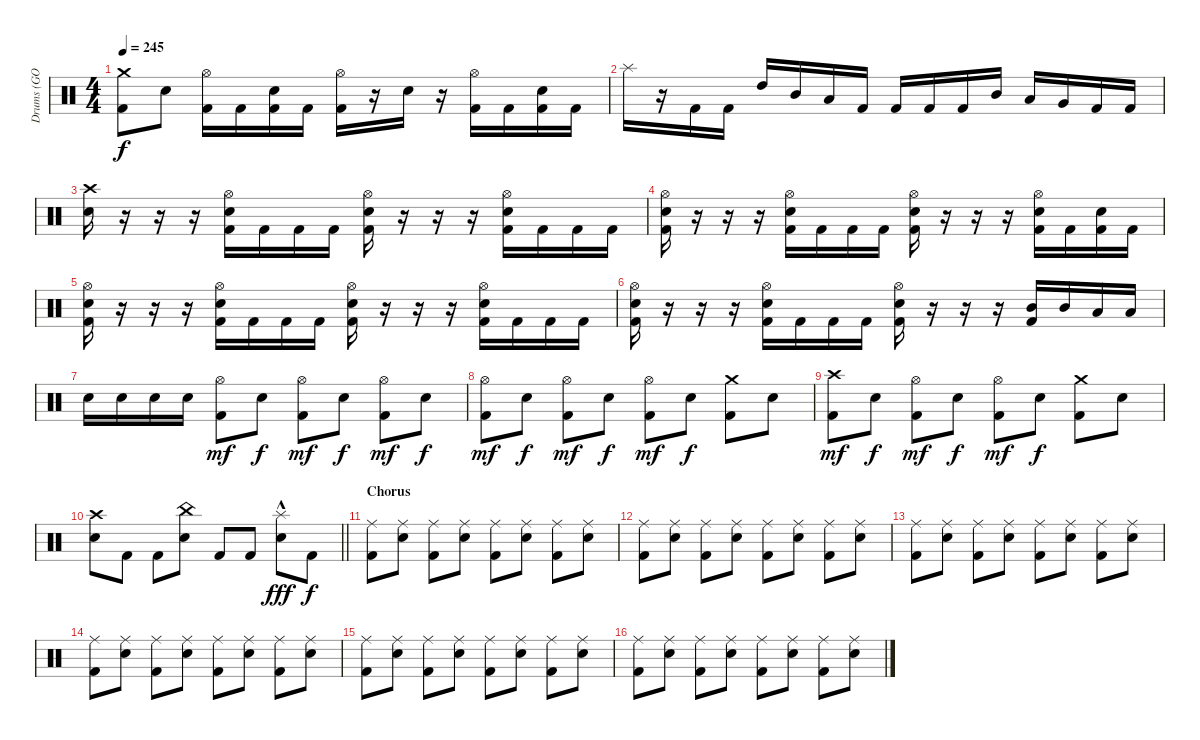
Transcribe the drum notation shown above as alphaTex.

\track ("Drums (GO DIRK)" "Drums (GO ") {instrument percussion}
\staff {score}
\articulation defaults
\ts (4 4)
\tempo 245
\clef neutral
\ks c
("Crash medium (hit)" "Kick (hit) 2").8{dy f} "Electric Snare (hit)".8 ("Hi-Hat (open)" "Kick (hit) 2").16 "Kick (hit) 2".16 ("Electric Snare (hit)" "Kick (hit) 2").16 "Kick (hit) 2".16 ("Hi-Hat (open)" "Kick (hit) 2").16 r.16 "Electric Snare (hit)".16 r.16 ("Hi-Hat (open)" "Kick (hit) 2").16 "Kick (hit) 2".16 ("Electric Snare (hit)" "Kick (hit) 2").16 "Kick (hit) 2".16 |
"Splash (hit)".16 r.16 "Kick (hit) 2".16 "Kick (hit) 2".16 "High Tom (hit)".16 "Mid Tom (hit)".16 "Low Tom (hit)".16 "Kick (hit) 2".16 "Kick (hit) 2".16 "Kick (hit) 2".16 "Kick (hit) 2".16 "Mid Tom (hit)".16 "Low Tom (hit)".16 "Very Low Tom (hit)".16 "Kick (hit) 2".16 "Kick (hit) 2".16 |
("Crash high (hit)" "Electric Snare (hit)").16 r.16 r.16 r.16 ("Hi-Hat (open)" "Electric Snare (hit)" "Kick (hit) 2").16 "Kick (hit) 2".16 "Kick (hit) 2".16 "Kick (hit) 2".16 ("Hi-Hat (open)" "Electric Snare (hit)" "Kick (hit) 2").16 r.16 r.16 r.16 ("Hi-Hat (open)" "Electric Snare (hit)" "Kick (hit) 2").16 "Kick (hit) 2".16 "Kick (hit) 2".16 "Kick (hit) 2".16 |
("Hi-Hat (open)" "Electric Snare (hit)" "Kick (hit) 2").16 r.16 r.16 r.16 ("Hi-Hat (open)" "Electric Snare (hit)" "Kick (hit) 2").16 "Kick (hit) 2".16 "Kick (hit) 2".16 "Kick (hit) 2".16 ("Hi-Hat (open)" "Electric Snare (hit)" "Kick (hit) 2").16 r.16 r.16 r.16 ("Hi-Hat (open)" "Electric Snare (hit)" "Kick (hit) 2").16 "Kick (hit) 2".16 ("Electric Snare (hit)" "Kick (hit) 2").16 "Kick (hit) 2".16 |
("Hi-Hat (open)" "Electric Snare (hit)" "Kick (hit) 2").16 r.16 r.16 r.16 ("Hi-Hat (open)" "Electric Snare (hit)" "Kick (hit) 2").16 "Kick (hit) 2".16 "Kick (hit) 2".16 "Kick (hit) 2".16 ("Hi-Hat (open)" "Electric Snare (hit)" "Kick (hit) 2").16 r.16 r.16 r.16 ("Hi-Hat (open)" "Electric Snare (hit)" "Kick (hit) 2").16 "Kick (hit) 2".16 "Kick (hit) 2".16 "Kick (hit) 2".16 |
("Hi-Hat (open)" "Electric Snare (hit)" "Kick (hit) 2").16 r.16 r.16 r.16 ("Hi-Hat (open)" "Electric Snare (hit)" "Kick (hit) 2").16 "Kick (hit) 2".16 "Kick (hit) 2".16 "Kick (hit) 2".16 ("Hi-Hat (open)" "Electric Snare (hit)" "Kick (hit) 2").16 r.16 r.16 r.16 ("Mid Tom (hit)" "Kick (hit) 2").16 "Mid Tom (hit)".16 "Low Tom (hit)".16 "Low Tom (hit)".16 |
"Electric Snare (hit)".16 "Electric Snare (hit)".16 "Electric Snare (hit)".16 "Electric Snare (hit)".16 ("Hi-Hat (open)" "Kick (hit) 2").8{dy mf} "Electric Snare (hit)".8{dy f} ("Hi-Hat (open)" "Kick (hit) 2").8{dy mf} "Electric Snare (hit)".8{dy f} ("Hi-Hat (open)" "Kick (hit) 2").8{dy mf} "Electric Snare (hit)".8{dy f} |
("Hi-Hat (open)" "Kick (hit) 2").8{dy mf} "Electric Snare (hit)".8{dy f} ("Hi-Hat (open)" "Kick (hit) 2").8{dy mf} "Electric Snare (hit)".8{dy f} ("Hi-Hat (open)" "Kick (hit) 2").8{dy mf} "Electric Snare (hit)".8{dy f} ("Crash medium (hit)" "Kick (hit) 2").8 "Electric Snare (hit)".8 |
("Crash high (hit)" "Kick (hit) 2").8{dy mf} "Electric Snare (hit)".8{dy f} ("Hi-Hat (open)" "Kick (hit) 2").8{dy mf} "Electric Snare (hit)".8{dy f} ("Hi-Hat (open)" "Kick (hit) 2").8{dy mf} "Electric Snare (hit)".8{dy f} ("Crash medium (hit)" "Kick (hit) 2").8 "Electric Snare (hit)".8 |
\barLineRight lightlight
("Crash high (hit)" "Electric Snare (hit)").8 "Kick (hit) 2".8 "Kick (hit) 2".8 ("China (hit)" "Electric Snare (hit)").8 "Kick (hit) 2".8 "Kick (hit) 2".8 ("Splash (hit)"{hac} "Electric Snare (hit)").8{dy fff} "Kick (hit) 2".8{dy f} |
\section ("" "Chorus")
("Ride (middle)" "Kick (hit) 2").8 ("Ride (middle)" "Electric Snare (hit)").8 ("Ride (middle)" "Kick (hit) 2").8 ("Ride (middle)" "Electric Snare (hit)").8 ("Ride (middle)" "Kick (hit) 2").8 ("Ride (middle)" "Electric Snare (hit)").8 ("Ride (middle)" "Kick (hit) 2").8 ("Ride (middle)" "Electric Snare (hit)").8 |
("Ride (middle)" "Kick (hit) 2").8 ("Ride (middle)" "Electric Snare (hit)").8 ("Ride (middle)" "Kick (hit) 2").8 ("Ride (middle)" "Electric Snare (hit)").8 ("Ride (middle)" "Kick (hit) 2").8 ("Ride (middle)" "Electric Snare (hit)").8 ("Ride (middle)" "Kick (hit) 2").8 ("Ride (middle)" "Electric Snare (hit)").8 |
("Ride (middle)" "Kick (hit) 2").8 ("Ride (middle)" "Electric Snare (hit)").8 ("Ride (middle)" "Kick (hit) 2").8 ("Ride (middle)" "Electric Snare (hit)").8 ("Ride (middle)" "Kick (hit) 2").8 ("Ride (middle)" "Electric Snare (hit)").8 ("Ride (middle)" "Kick (hit) 2").8 ("Ride (middle)" "Electric Snare (hit)").8 |
("Ride (middle)" "Kick (hit) 2").8 ("Ride (middle)" "Electric Snare (hit)").8 ("Ride (middle)" "Kick (hit) 2").8 ("Ride (middle)" "Electric Snare (hit)").8 ("Ride (middle)" "Kick (hit) 2").8 ("Ride (middle)" "Electric Snare (hit)").8 ("Ride (middle)" "Kick (hit) 2").8 ("Ride (middle)" "Electric Snare (hit)").8 |
("Ride (middle)" "Kick (hit) 2").8 ("Ride (middle)" "Electric Snare (hit)").8 ("Ride (middle)" "Kick (hit) 2").8 ("Ride (middle)" "Electric Snare (hit)").8 ("Ride (middle)" "Kick (hit) 2").8 ("Ride (middle)" "Electric Snare (hit)").8 ("Ride (middle)" "Kick (hit) 2").8 ("Ride (middle)" "Electric Snare (hit)").8 |
("Ride (middle)" "Kick (hit) 2").8 ("Ride (middle)" "Electric Snare (hit)").8 ("Ride (middle)" "Kick (hit) 2").8 ("Ride (middle)" "Electric Snare (hit)").8 ("Ride (middle)" "Kick (hit) 2").8 ("Ride (middle)" "Electric Snare (hit)").8 ("Ride (middle)" "Kick (hit) 2").8 ("Ride (middle)" "Electric Snare (hit)").8
